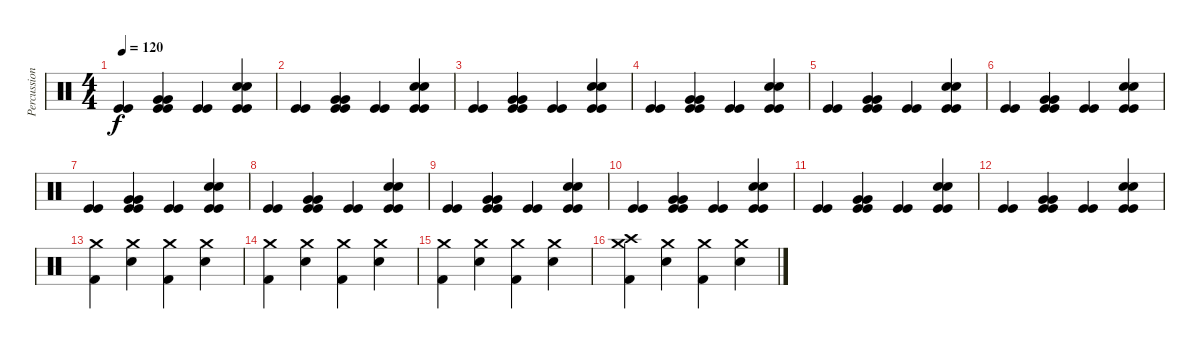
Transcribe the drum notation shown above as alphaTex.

\track ("Percussion" "Percussion") {instrument percussion}
\staff {score}
\articulation defaults
\ts (4 4)
\tempo 120
\clef neutral
\ks c
("Kick (hit)" "Kick (hit)").4{dy f} ("Kick (hit)" "Kick (hit)" "Very Low Tom (hit)" "Very Low Tom (hit)").4 ("Kick (hit)" "Kick (hit)").4 ("Kick (hit)" "Kick (hit)" "Snare (hit) 2" "Snare (hit) 2").4 |
("Kick (hit)" "Kick (hit)").4 ("Kick (hit)" "Kick (hit)" "Very Low Tom (hit)" "Very Low Tom (hit)").4 ("Kick (hit)" "Kick (hit)").4 ("Kick (hit)" "Kick (hit)" "Snare (hit) 2" "Snare (hit) 2").4 |
("Kick (hit)" "Kick (hit)").4 ("Kick (hit)" "Kick (hit)" "Very Low Tom (hit)" "Very Low Tom (hit)").4 ("Kick (hit)" "Kick (hit)").4 ("Kick (hit)" "Kick (hit)" "Snare (hit) 2" "Snare (hit) 2").4 |
("Kick (hit)" "Kick (hit)").4 ("Kick (hit)" "Kick (hit)" "Very Low Tom (hit)" "Very Low Tom (hit)").4 ("Kick (hit)" "Kick (hit)").4 ("Kick (hit)" "Kick (hit)" "Snare (hit) 2" "Snare (hit) 2").4 |
("Kick (hit)" "Kick (hit)").4 ("Kick (hit)" "Kick (hit)" "Very Low Tom (hit)" "Very Low Tom (hit)").4 ("Kick (hit)" "Kick (hit)").4 ("Kick (hit)" "Kick (hit)" "Snare (hit) 2" "Snare (hit) 2").4 |
("Kick (hit)" "Kick (hit)").4 ("Kick (hit)" "Kick (hit)" "Very Low Tom (hit)" "Very Low Tom (hit)").4 ("Kick (hit)" "Kick (hit)").4 ("Kick (hit)" "Kick (hit)" "Snare (hit) 2" "Snare (hit) 2").4 |
("Kick (hit)" "Kick (hit)").4 ("Kick (hit)" "Kick (hit)" "Very Low Tom (hit)" "Very Low Tom (hit)").4 ("Kick (hit)" "Kick (hit)").4 ("Kick (hit)" "Kick (hit)" "Snare (hit) 2" "Snare (hit) 2").4 |
("Kick (hit)" "Kick (hit)").4 ("Kick (hit)" "Kick (hit)" "Very Low Tom (hit)" "Very Low Tom (hit)").4 ("Kick (hit)" "Kick (hit)").4 ("Kick (hit)" "Kick (hit)" "Snare (hit) 2" "Snare (hit) 2").4 |
("Kick (hit)" "Kick (hit)").4 ("Kick (hit)" "Kick (hit)" "Very Low Tom (hit)" "Very Low Tom (hit)").4 ("Kick (hit)" "Kick (hit)").4 ("Kick (hit)" "Kick (hit)" "Snare (hit) 2" "Snare (hit) 2").4 |
("Kick (hit)" "Kick (hit)").4 ("Kick (hit)" "Kick (hit)" "Very Low Tom (hit)" "Very Low Tom (hit)").4 ("Kick (hit)" "Kick (hit)").4 ("Kick (hit)" "Kick (hit)" "Snare (hit) 2" "Snare (hit) 2").4 |
("Kick (hit)" "Kick (hit)").4 ("Kick (hit)" "Kick (hit)" "Very Low Tom (hit)" "Very Low Tom (hit)").4 ("Kick (hit)" "Kick (hit)").4 ("Kick (hit)" "Kick (hit)" "Snare (hit) 2" "Snare (hit) 2").4 |
("Kick (hit)" "Kick (hit)").4 ("Kick (hit)" "Kick (hit)" "Very Low Tom (hit)" "Very Low Tom (hit)").4 ("Kick (hit)" "Kick (hit)").4 ("Kick (hit)" "Kick (hit)" "Snare (hit) 2" "Snare (hit) 2").4 |
("Crash medium (hit)" "Kick (hit) 2").4 ("Crash medium (hit)" "Snare (hit) 2").4 ("Crash medium (hit)" "Kick (hit) 2").4 ("Crash medium (hit)" "Snare (hit) 2").4 |
("Crash medium (hit)" "Kick (hit) 2").4 ("Crash medium (hit)" "Snare (hit) 2").4 ("Crash medium (hit)" "Kick (hit) 2").4 ("Crash medium (hit)" "Snare (hit) 2").4 |
("Crash medium (hit)" "Kick (hit) 2").4 ("Crash medium (hit)" "Snare (hit) 2").4 ("Crash medium (hit)" "Kick (hit) 2").4 ("Crash medium (hit)" "Snare (hit) 2").4 |
("Crash medium (hit)" "Kick (hit) 2" "Crash high (hit)").4 ("Crash medium (hit)" "Snare (hit) 2").4 ("Crash medium (hit)" "Kick (hit) 2").4 ("Crash medium (hit)" "Snare (hit) 2").4
